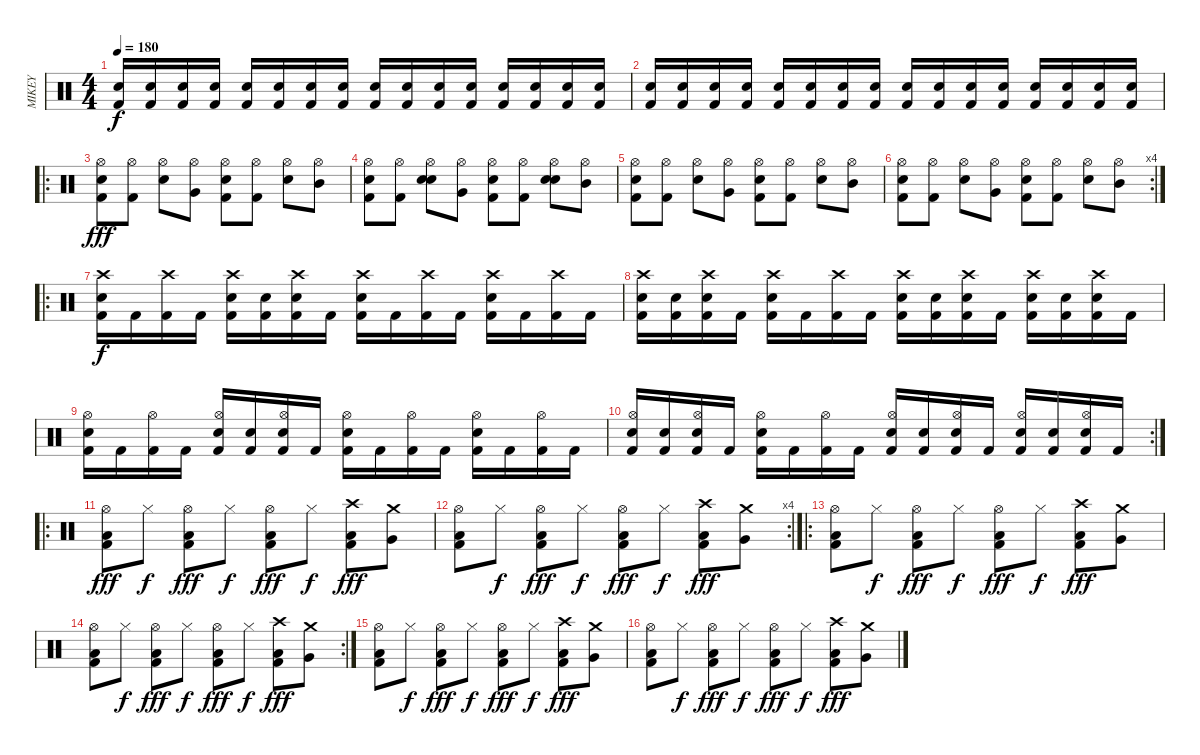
\track ("MIKEY" "MIKEY") {instrument percussion}
\staff {score}
\articulation defaults
\ts (4 4)
\tempo 180
\clef neutral
\ks c
("Kick (hit) 2" "Electric Snare (hit)").16{dy f} ("Kick (hit) 2" "Electric Snare (hit)").16 ("Kick (hit) 2" "Electric Snare (hit)").16 ("Kick (hit) 2" "Electric Snare (hit)").16 ("Kick (hit) 2" "Electric Snare (hit)").16 ("Kick (hit) 2" "Electric Snare (hit)").16 ("Kick (hit) 2" "Electric Snare (hit)").16 ("Kick (hit) 2" "Electric Snare (hit)").16 ("Kick (hit) 2" "Electric Snare (hit)").16 ("Kick (hit) 2" "Electric Snare (hit)").16 ("Kick (hit) 2" "Electric Snare (hit)").16 ("Kick (hit) 2" "Electric Snare (hit)").16 ("Kick (hit) 2" "Electric Snare (hit)").16 ("Kick (hit) 2" "Electric Snare (hit)").16 ("Kick (hit) 2" "Electric Snare (hit)").16 ("Kick (hit) 2" "Electric Snare (hit)").16 |
("Kick (hit) 2" "Electric Snare (hit)").16 ("Kick (hit) 2" "Electric Snare (hit)").16 ("Kick (hit) 2" "Electric Snare (hit)").16 ("Kick (hit) 2" "Electric Snare (hit)").16 ("Kick (hit) 2" "Electric Snare (hit)").16 ("Kick (hit) 2" "Electric Snare (hit)").16 ("Kick (hit) 2" "Electric Snare (hit)").16 ("Kick (hit) 2" "Electric Snare (hit)").16 ("Kick (hit) 2" "Electric Snare (hit)").16 ("Kick (hit) 2" "Electric Snare (hit)").16 ("Kick (hit) 2" "Electric Snare (hit)").16 ("Kick (hit) 2" "Electric Snare (hit)").16 ("Kick (hit) 2" "Electric Snare (hit)").16 ("Kick (hit) 2" "Electric Snare (hit)").16 ("Kick (hit) 2" "Electric Snare (hit)").16 ("Kick (hit) 2" "Electric Snare (hit)").16 |
\ro
("Electric Snare (hit)" "Hi-Hat (open)" "Kick (hit) 2").8{dy fff} ("Hi-Hat (open)" "Kick (hit) 2").8 ("Hi-Hat (open)" "Snare (hit) 2").8 ("Hi-Hat (open)" "Very Low Tom (hit)").8 ("Electric Snare (hit)" "Hi-Hat (open)" "Kick (hit) 2").8 ("Hi-Hat (open)" "Kick (hit) 2").8 ("Hi-Hat (open)" "Snare (hit) 2").8 ("Hi-Hat (open)" "Mid Tom (hit)").8 |
("Electric Snare (hit)" "Hi-Hat (open)" "Kick (hit) 2").8 ("Hi-Hat (open)" "Kick (hit) 2").8 ("Electric Snare (hit)" "Hi-Hat (open)" "Snare (hit) 2").8 ("Hi-Hat (open)" "Very Low Tom (hit)").8 ("Electric Snare (hit)" "Hi-Hat (open)" "Kick (hit) 2").8 ("Hi-Hat (open)" "Kick (hit) 2").8 ("Electric Snare (hit)" "Hi-Hat (open)" "Snare (hit) 2").8 ("Hi-Hat (open)" "Mid Tom (hit)").8 |
("Electric Snare (hit)" "Hi-Hat (open)" "Kick (hit) 2").8 ("Hi-Hat (open)" "Kick (hit) 2").8 ("Hi-Hat (open)" "Snare (hit) 2").8 ("Hi-Hat (open)" "Very Low Tom (hit)").8 ("Electric Snare (hit)" "Hi-Hat (open)" "Kick (hit) 2").8 ("Hi-Hat (open)" "Kick (hit) 2").8 ("Hi-Hat (open)" "Snare (hit) 2").8 ("Hi-Hat (open)" "Mid Tom (hit)").8 |
\rc 4
("Electric Snare (hit)" "Hi-Hat (open)" "Kick (hit) 2").8 ("Hi-Hat (open)" "Kick (hit) 2").8 ("Hi-Hat (open)" "Snare (hit) 2").8 ("Hi-Hat (open)" "Very Low Tom (hit)").8 ("Electric Snare (hit)" "Hi-Hat (open)" "Kick (hit) 2").8 ("Hi-Hat (open)" "Kick (hit) 2").8 ("Hi-Hat (open)" "Snare (hit) 2").8 ("Hi-Hat (open)" "Mid Tom (hit)").8 |
\ro
("Crash high (hit)" "Snare (hit) 2" "Kick (hit) 2").16{dy f} "Kick (hit) 2".16 ("Crash high (hit)" "Kick (hit) 2").16 "Kick (hit) 2".16 ("Crash high (hit)" "Snare (hit) 2" "Kick (hit) 2").16 ("Snare (hit) 2" "Kick (hit) 2").16 ("Crash high (hit)" "Snare (hit) 2" "Kick (hit) 2").16 "Kick (hit) 2".16 ("Crash high (hit)" "Snare (hit) 2" "Kick (hit) 2").16 "Kick (hit) 2".16 ("Crash high (hit)" "Kick (hit) 2").16 "Kick (hit) 2".16 ("Crash high (hit)" "Snare (hit) 2" "Kick (hit) 2").16 "Kick (hit) 2".16 ("Crash high (hit)" "Kick (hit) 2").16 "Kick (hit) 2".16 |
("Crash high (hit)" "Snare (hit) 2" "Kick (hit) 2").16 ("Snare (hit) 2" "Kick (hit) 2").16 ("Crash high (hit)" "Snare (hit) 2" "Kick (hit) 2").16 "Kick (hit) 2".16 ("Crash high (hit)" "Snare (hit) 2" "Kick (hit) 2").16 "Kick (hit) 2".16 ("Crash high (hit)" "Kick (hit) 2").16 "Kick (hit) 2".16 ("Crash high (hit)" "Snare (hit) 2" "Kick (hit) 2").16 ("Snare (hit) 2" "Kick (hit) 2").16 ("Crash high (hit)" "Snare (hit) 2" "Kick (hit) 2").16 "Kick (hit) 2".16 ("Crash high (hit)" "Snare (hit) 2" "Kick (hit) 2").16 ("Snare (hit) 2" "Kick (hit) 2").16 ("Crash high (hit)" "Snare (hit) 2" "Kick (hit) 2").16 "Kick (hit) 2".16 |
("Hi-Hat (open)" "Snare (hit) 2" "Kick (hit) 2").16 "Kick (hit) 2".16 ("Hi-Hat (open)" "Kick (hit) 2").16 "Kick (hit) 2".16 ("Hi-Hat (open)" "Snare (hit) 2" "Kick (hit) 2").16 ("Snare (hit) 2" "Kick (hit) 2").16 ("Hi-Hat (open)" "Snare (hit) 2" "Kick (hit) 2").16 "Kick (hit) 2".16 ("Hi-Hat (open)" "Snare (hit) 2" "Kick (hit) 2").16 "Kick (hit) 2".16 ("Hi-Hat (open)" "Kick (hit) 2").16 "Kick (hit) 2".16 ("Hi-Hat (open)" "Snare (hit) 2" "Kick (hit) 2").16 "Kick (hit) 2".16 ("Hi-Hat (open)" "Kick (hit) 2").16 "Kick (hit) 2".16 |
\rc 2
("Hi-Hat (open)" "Snare (hit) 2" "Kick (hit) 2").16 ("Snare (hit) 2" "Kick (hit) 2").16 ("Hi-Hat (open)" "Snare (hit) 2" "Kick (hit) 2").16 "Kick (hit) 2".16 ("Hi-Hat (open)" "Snare (hit) 2" "Kick (hit) 2").16 "Kick (hit) 2".16 ("Hi-Hat (open)" "Kick (hit) 2").16 "Kick (hit) 2".16 ("Hi-Hat (open)" "Snare (hit) 2" "Kick (hit) 2").16 ("Snare (hit) 2" "Kick (hit) 2").16 ("Hi-Hat (open)" "Snare (hit) 2" "Kick (hit) 2").16 "Kick (hit) 2".16 ("Hi-Hat (open)" "Snare (hit) 2" "Kick (hit) 2").16 ("Snare (hit) 2" "Kick (hit) 2").16 ("Hi-Hat (open)" "Snare (hit) 2" "Kick (hit) 2").16 "Kick (hit) 2".16 |
\ro
("Low Floor Tom (hit)" "Kick (hit) 2" "Hi-Hat (open)").8{dy fff} "Hi-Hat (closed)".8{dy f} ("Low Floor Tom (hit)" "Kick (hit) 2" "Hi-Hat (open)").8{dy fff} "Hi-Hat (closed)".8{dy f} ("Low Floor Tom (hit)" "Kick (hit) 2" "Hi-Hat (open)").8{dy fff} "Hi-Hat (closed)".8{dy f} ("Low Floor Tom (hit)" "Kick (hit) 2" "Crash high (hit)").8{dy fff} ("Very Low Tom (hit)" "Crash medium (hit)").8 |
\rc 4
("Low Floor Tom (hit)" "Kick (hit) 2" "Hi-Hat (open)").8 "Hi-Hat (closed)".8{dy f} ("Low Floor Tom (hit)" "Kick (hit) 2" "Hi-Hat (open)").8{dy fff} "Hi-Hat (closed)".8{dy f} ("Low Floor Tom (hit)" "Kick (hit) 2" "Hi-Hat (open)").8{dy fff} "Hi-Hat (closed)".8{dy f} ("Low Floor Tom (hit)" "Kick (hit) 2" "Crash high (hit)").8{dy fff} ("Very Low Tom (hit)" "Crash medium (hit)").8 |
\ro
("Low Floor Tom (hit)" "Kick (hit) 2" "Hi-Hat (open)").8 "Hi-Hat (closed)".8{dy f} ("Low Floor Tom (hit)" "Kick (hit) 2" "Hi-Hat (open)").8{dy fff} "Hi-Hat (closed)".8{dy f} ("Low Floor Tom (hit)" "Kick (hit) 2" "Hi-Hat (open)").8{dy fff} "Hi-Hat (closed)".8{dy f} ("Low Floor Tom (hit)" "Kick (hit) 2" "Crash high (hit)").8{dy fff} ("Very Low Tom (hit)" "Crash medium (hit)").8 |
\rc 2
("Low Floor Tom (hit)" "Kick (hit) 2" "Hi-Hat (open)").8 "Hi-Hat (closed)".8{dy f} ("Low Floor Tom (hit)" "Kick (hit) 2" "Hi-Hat (open)").8{dy fff} "Hi-Hat (closed)".8{dy f} ("Low Floor Tom (hit)" "Kick (hit) 2" "Hi-Hat (open)").8{dy fff} "Hi-Hat (closed)".8{dy f} ("Low Floor Tom (hit)" "Kick (hit) 2" "Crash high (hit)").8{dy fff} ("Very Low Tom (hit)" "Crash medium (hit)").8 |
("Low Floor Tom (hit)" "Kick (hit) 2" "Hi-Hat (open)").8 "Hi-Hat (closed)".8{dy f} ("Low Floor Tom (hit)" "Kick (hit) 2" "Hi-Hat (open)").8{dy fff} "Hi-Hat (closed)".8{dy f} ("Low Floor Tom (hit)" "Kick (hit) 2" "Hi-Hat (open)").8{dy fff} "Hi-Hat (closed)".8{dy f} ("Low Floor Tom (hit)" "Kick (hit) 2" "Crash high (hit)").8{dy fff} ("Very Low Tom (hit)" "Crash medium (hit)").8 |
("Low Floor Tom (hit)" "Kick (hit) 2" "Hi-Hat (open)").8 "Hi-Hat (closed)".8{dy f} ("Low Floor Tom (hit)" "Kick (hit) 2" "Hi-Hat (open)").8{dy fff} "Hi-Hat (closed)".8{dy f} ("Low Floor Tom (hit)" "Kick (hit) 2" "Hi-Hat (open)").8{dy fff} "Hi-Hat (closed)".8{dy f} ("Low Floor Tom (hit)" "Kick (hit) 2" "Crash high (hit)").8{dy fff} ("Very Low Tom (hit)" "Crash medium (hit)").8
